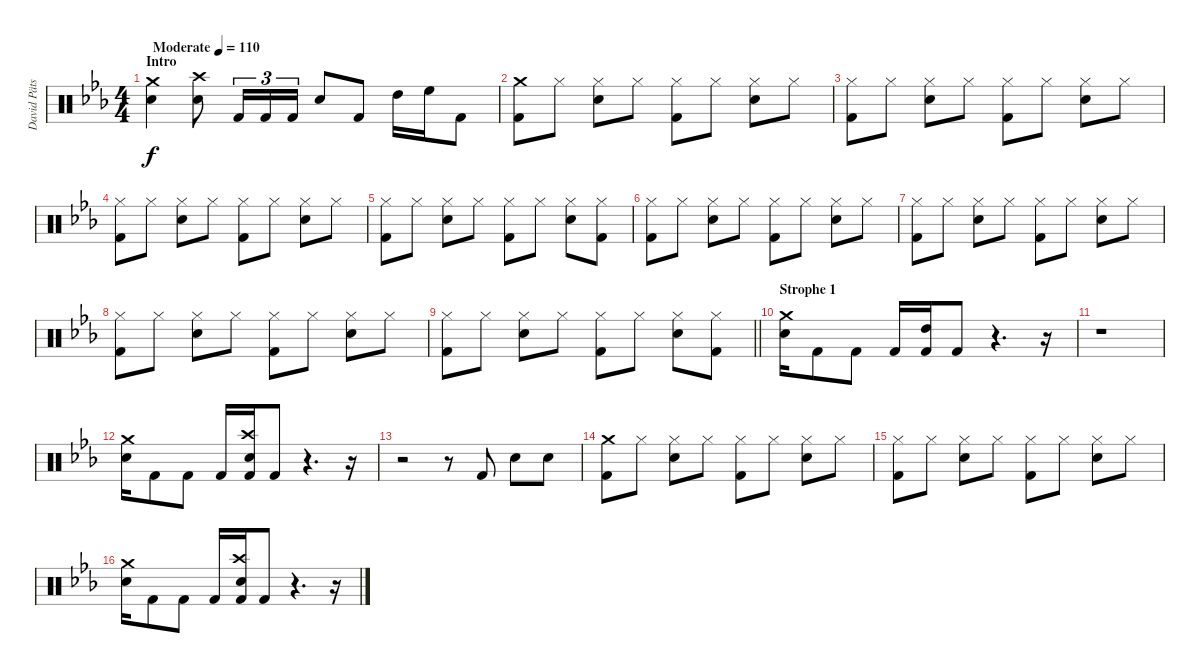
\track ("David Pätsch" "David Päts") {instrument percussion}
\staff {score}
\articulation defaults
\ts (4 4)
\section ("" "Intro")
\tempo (110 "Moderate")
\clef neutral
\ks cminor
("Snare (hit) 2" "Crash medium (hit)").4{dy f} ("Snare (hit) 2" "Crash high (hit)").8 "Kick (hit) 2".16{tu (3 2)} "Kick (hit) 2".16{tu (3 2)} "Kick (hit) 2".16{tu (3 2)} "Snare (hit) 2".8 "Kick (hit) 2".8 "High Tom (hit)".16 "High Floor Tom (hit)".16 "Kick (hit) 2".8 |
("Kick (hit) 2" "Crash medium (hit)").8 "Hi-Hat (closed)".8 ("Snare (hit) 2" "Hi-Hat (closed)").8 "Hi-Hat (closed)".8 ("Kick (hit) 2" "Hi-Hat (closed)").8 "Hi-Hat (closed)".8 ("Snare (hit) 2" "Hi-Hat (closed)").8 "Hi-Hat (closed)".8 |
("Kick (hit) 2" "Hi-Hat (closed)").8 "Hi-Hat (closed)".8 ("Snare (hit) 2" "Hi-Hat (closed)").8 "Hi-Hat (closed)".8 ("Kick (hit) 2" "Hi-Hat (closed)").8 "Hi-Hat (closed)".8 ("Snare (hit) 2" "Hi-Hat (closed)").8 "Hi-Hat (closed)".8 |
("Kick (hit) 2" "Hi-Hat (closed)").8 "Hi-Hat (closed)".8 ("Snare (hit) 2" "Hi-Hat (closed)").8 "Hi-Hat (closed)".8 ("Kick (hit) 2" "Hi-Hat (closed)").8 "Hi-Hat (closed)".8 ("Snare (hit) 2" "Hi-Hat (closed)").8 "Hi-Hat (closed)".8 |
("Kick (hit) 2" "Hi-Hat (closed)").8 "Hi-Hat (closed)".8 ("Snare (hit) 2" "Hi-Hat (closed)").8 "Hi-Hat (closed)".8 ("Kick (hit) 2" "Hi-Hat (closed)").8 "Hi-Hat (closed)".8 ("Snare (hit) 2" "Hi-Hat (closed)").8 ("Kick (hit) 2" "Hi-Hat (closed)").8 |
("Kick (hit) 2" "Hi-Hat (closed)").8 "Hi-Hat (closed)".8 ("Snare (hit) 2" "Hi-Hat (closed)").8 "Hi-Hat (closed)".8 ("Kick (hit) 2" "Hi-Hat (closed)").8 "Hi-Hat (closed)".8 ("Snare (hit) 2" "Hi-Hat (closed)").8 "Hi-Hat (closed)".8 |
("Kick (hit) 2" "Hi-Hat (closed)").8 "Hi-Hat (closed)".8 ("Snare (hit) 2" "Hi-Hat (closed)").8 "Hi-Hat (closed)".8 ("Kick (hit) 2" "Hi-Hat (closed)").8 "Hi-Hat (closed)".8 ("Snare (hit) 2" "Hi-Hat (closed)").8 "Hi-Hat (closed)".8 |
("Kick (hit) 2" "Hi-Hat (closed)").8 "Hi-Hat (closed)".8 ("Snare (hit) 2" "Hi-Hat (closed)").8 "Hi-Hat (closed)".8 ("Kick (hit) 2" "Hi-Hat (closed)").8 "Hi-Hat (closed)".8 ("Snare (hit) 2" "Hi-Hat (closed)").8 "Hi-Hat (closed)".8 |
\barLineRight lightlight
("Kick (hit) 2" "Hi-Hat (closed)").8 "Hi-Hat (closed)".8 ("Snare (hit) 2" "Hi-Hat (closed)").8 "Hi-Hat (closed)".8 ("Kick (hit) 2" "Hi-Hat (closed)").8 "Hi-Hat (closed)".8 ("Snare (hit) 2" "Hi-Hat (closed)").8 ("Kick (hit) 2" "Hi-Hat (closed)").8 |
\section ("" "Strophe 1")
("Snare (hit) 2" "Crash medium (hit)").16 "Kick (hit) 2".8 "Kick (hit) 2".8 "Kick (hit) 2".16 ("High Tom (hit)" "Kick (hit) 2").16 "Kick (hit) 2".8 r.4{d} r.16 |
r.1 |
("Snare (hit) 2" "Crash medium (hit)").16 "Kick (hit) 2".8 "Kick (hit) 2".8 "Kick (hit) 2".16 ("Snare (hit) 2" "Kick (hit) 2" "Crash high (hit)").16 "Kick (hit) 2".8 r.4{d} r.16 |
r.2 r.8 "Kick (hit) 2".8 "Snare (hit) 2".8 "Snare (hit) 2".8 |
("Kick (hit) 2" "Crash medium (hit)").8 "Hi-Hat (closed)".8 ("Snare (hit) 2" "Hi-Hat (closed)").8 "Hi-Hat (closed)".8 ("Kick (hit) 2" "Hi-Hat (closed)").8 "Hi-Hat (closed)".8 ("Snare (hit) 2" "Hi-Hat (closed)").8 "Hi-Hat (closed)".8 |
("Kick (hit) 2" "Hi-Hat (closed)").8 "Hi-Hat (closed)".8 ("Snare (hit) 2" "Hi-Hat (closed)").8 "Hi-Hat (closed)".8 ("Kick (hit) 2" "Hi-Hat (closed)").8 "Hi-Hat (closed)".8 ("Snare (hit) 2" "Hi-Hat (closed)").8 "Hi-Hat (closed)".8 |
("Snare (hit) 2" "Crash medium (hit)").16 "Kick (hit) 2".8 "Kick (hit) 2".8 "Kick (hit) 2".16 ("Snare (hit) 2" "Kick (hit) 2" "Crash high (hit)").16 "Kick (hit) 2".8 r.4{d} r.16
